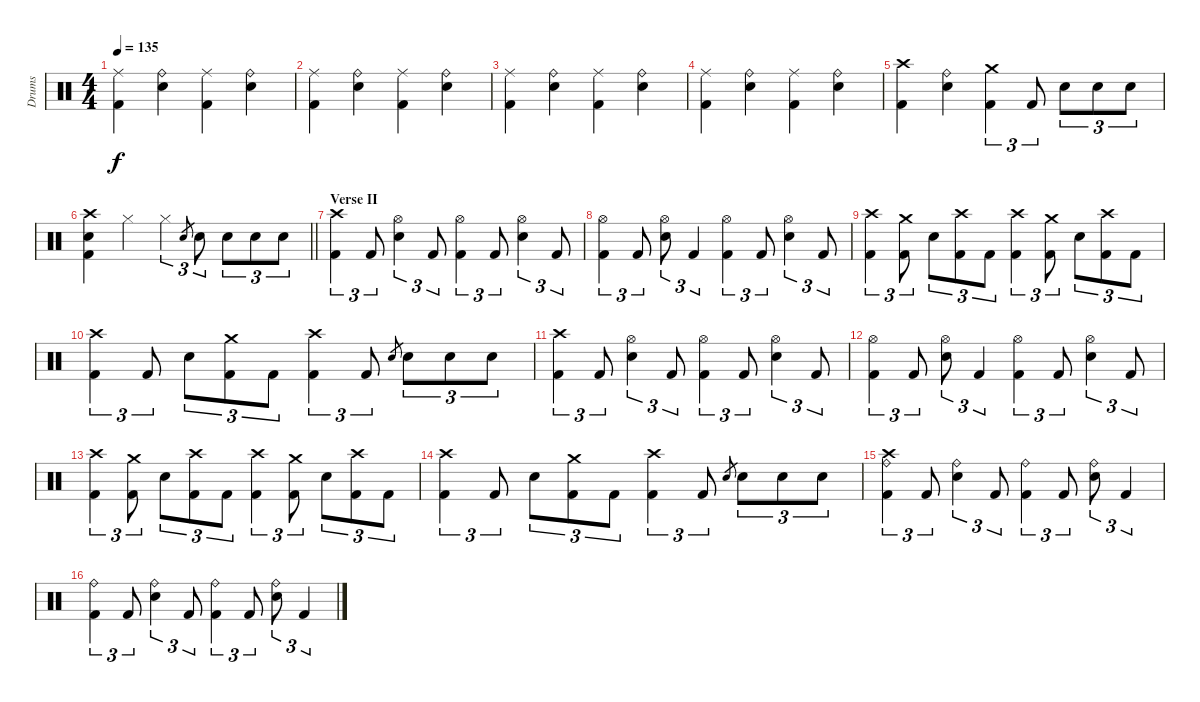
\track ("Drums" "Drums") {instrument percussion}
\staff {score}
\articulation defaults
\ts (4 4)
\tempo 135
\clef neutral
\ks c
("Ride (middle)" "Kick (hit) 2").4{dy f} ("Ride (bell)" "Snare (hit) 2").4 ("Ride (middle)" "Kick (hit) 2").4 ("Ride (bell)" "Snare (hit) 2").4 |
("Ride (middle)" "Kick (hit) 2").4 ("Ride (bell)" "Snare (hit) 2").4 ("Ride (middle)" "Kick (hit) 2").4 ("Ride (bell)" "Snare (hit) 2").4 |
("Ride (middle)" "Kick (hit) 2").4 ("Ride (bell)" "Snare (hit) 2").4 ("Ride (middle)" "Kick (hit) 2").4 ("Ride (bell)" "Snare (hit) 2").4 |
("Ride (middle)" "Kick (hit) 2").4 ("Ride (bell)" "Snare (hit) 2").4 ("Ride (middle)" "Kick (hit) 2").4 ("Ride (bell)" "Snare (hit) 2").4 |
("Crash high (hit)" "Kick (hit) 2").4 ("Ride (bell)" "Snare (hit) 2").4 ("Crash medium (hit)" "Kick (hit) 2").4{tu (3 2)} "Kick (hit) 2".8{tu (3 2)} "Snare (hit) 2".8{tu (3 2)} "Snare (hit) 2".8{tu (3 2)} "Snare (hit) 2".8{tu (3 2)} |
\barLineRight lightlight
("Crash high (hit)" "Snare (hit) 2" "Kick (hit) 2").4 "Hi-Hat (closed)".4 "Hi-Hat (closed)".4{tu (3 2)} "Snare (hit) 2".8{gr} "Snare (hit) 2".8{tu (3 2)} "Snare (hit) 2".8{tu (3 2)} "Snare (hit) 2".8{tu (3 2)} "Snare (hit) 2".8{tu (3 2)} |
\section ("" "Verse II")
("Crash high (hit)" "Kick (hit) 2").4{tu (3 2)} "Kick (hit) 2".8{tu (3 2)} ("Hi-Hat (open)" "Snare (hit) 2").4{tu (3 2)} "Kick (hit) 2".8{tu (3 2)} ("Hi-Hat (open)" "Kick (hit) 2").4{tu (3 2)} "Kick (hit) 2".8{tu (3 2)} ("Hi-Hat (open)" "Snare (hit) 2").4{tu (3 2)} "Kick (hit) 2".8{tu (3 2)} |
("Hi-Hat (open)" "Kick (hit) 2").4{tu (3 2)} "Kick (hit) 2".8{tu (3 2)} ("Hi-Hat (open)" "Snare (hit) 2").8{tu (3 2)} "Kick (hit) 2".4{tu (3 2)} ("Hi-Hat (open)" "Kick (hit) 2").4{tu (3 2)} "Kick (hit) 2".8{tu (3 2)} ("Hi-Hat (open)" "Snare (hit) 2").4{tu (3 2)} "Kick (hit) 2".8{tu (3 2)} |
("Crash high (hit)" "Kick (hit) 2").4{tu (3 2)} ("Crash medium (hit)" "Kick (hit) 2").8{tu (3 2)} "Snare (hit) 2".8{tu (3 2)} ("Crash high (hit)" "Kick (hit) 2").8{tu (3 2)} "Kick (hit) 2".8{tu (3 2)} ("Crash high (hit)" "Kick (hit) 2").4{tu (3 2)} ("Crash medium (hit)" "Kick (hit) 2").8{tu (3 2)} "Snare (hit) 2".8{tu (3 2)} ("Crash high (hit)" "Kick (hit) 2").8{tu (3 2)} "Kick (hit) 2".8{tu (3 2)} |
("Crash high (hit)" "Kick (hit) 2").4{tu (3 2)} "Kick (hit) 2".8{tu (3 2)} "Snare (hit) 2".8{tu (3 2)} ("Crash medium (hit)" "Kick (hit) 2").8{tu (3 2)} "Kick (hit) 2".8{tu (3 2)} ("Crash high (hit)" "Kick (hit) 2").4{tu (3 2)} "Kick (hit) 2".8{tu (3 2)} "Snare (hit) 2".8{gr} "Snare (hit) 2".8{tu (3 2)} "Snare (hit) 2".8{tu (3 2)} "Snare (hit) 2".8{tu (3 2)} |
("Crash high (hit)" "Kick (hit) 2").4{tu (3 2)} "Kick (hit) 2".8{tu (3 2)} ("Hi-Hat (open)" "Snare (hit) 2").4{tu (3 2)} "Kick (hit) 2".8{tu (3 2)} ("Hi-Hat (open)" "Kick (hit) 2").4{tu (3 2)} "Kick (hit) 2".8{tu (3 2)} ("Hi-Hat (open)" "Snare (hit) 2").4{tu (3 2)} "Kick (hit) 2".8{tu (3 2)} |
("Hi-Hat (open)" "Kick (hit) 2").4{tu (3 2)} "Kick (hit) 2".8{tu (3 2)} ("Hi-Hat (open)" "Snare (hit) 2").8{tu (3 2)} "Kick (hit) 2".4{tu (3 2)} ("Hi-Hat (open)" "Kick (hit) 2").4{tu (3 2)} "Kick (hit) 2".8{tu (3 2)} ("Hi-Hat (open)" "Snare (hit) 2").4{tu (3 2)} "Kick (hit) 2".8{tu (3 2)} |
("Crash high (hit)" "Kick (hit) 2").4{tu (3 2)} ("Crash medium (hit)" "Kick (hit) 2").8{tu (3 2)} "Snare (hit) 2".8{tu (3 2)} ("Crash high (hit)" "Kick (hit) 2").8{tu (3 2)} "Kick (hit) 2".8{tu (3 2)} ("Crash high (hit)" "Kick (hit) 2").4{tu (3 2)} ("Crash medium (hit)" "Kick (hit) 2").8{tu (3 2)} "Snare (hit) 2".8{tu (3 2)} ("Crash high (hit)" "Kick (hit) 2").8{tu (3 2)} "Kick (hit) 2".8{tu (3 2)} |
("Crash high (hit)" "Kick (hit) 2").4{tu (3 2)} "Kick (hit) 2".8{tu (3 2)} "Snare (hit) 2".8{tu (3 2)} ("Crash medium (hit)" "Kick (hit) 2").8{tu (3 2)} "Kick (hit) 2".8{tu (3 2)} ("Crash high (hit)" "Kick (hit) 2").4{tu (3 2)} "Kick (hit) 2".8{tu (3 2)} "Snare (hit) 2".8{gr} "Snare (hit) 2".8{tu (3 2)} "Snare (hit) 2".8{tu (3 2)} "Snare (hit) 2".8{tu (3 2)} |
("Crash high (hit)" "Ride (bell)" "Kick (hit) 2").4{tu (3 2)} "Kick (hit) 2".8{tu (3 2)} ("Ride (bell)" "Snare (hit) 2").4{tu (3 2)} "Kick (hit) 2".8{tu (3 2)} ("Ride (bell)" "Kick (hit) 2").4{tu (3 2)} "Kick (hit) 2".8{tu (3 2)} ("Ride (bell)" "Snare (hit) 2").8{tu (3 2)} "Kick (hit) 2".4{tu (3 2)} |
("Ride (bell)" "Kick (hit) 2").4{tu (3 2)} "Kick (hit) 2".8{tu (3 2)} ("Ride (bell)" "Snare (hit) 2").4{tu (3 2)} "Kick (hit) 2".8{tu (3 2)} ("Ride (bell)" "Kick (hit) 2").4{tu (3 2)} "Kick (hit) 2".8{tu (3 2)} ("Ride (bell)" "Snare (hit) 2").8{tu (3 2)} "Kick (hit) 2".4{tu (3 2)}
